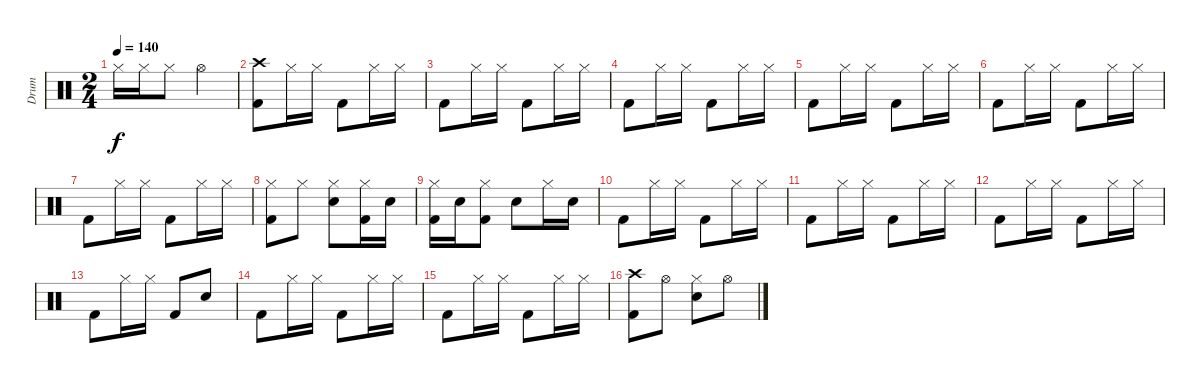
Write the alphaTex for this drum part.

\track ("Drum" "Drum") {instrument percussion}
\staff {score}
\articulation defaults
\ts (2 4)
\tempo 140
\clef neutral
\ks c "Hi-Hat (closed)".16{dy f} "Hi-Hat (closed)".16 "Hi-Hat (closed)".8 "Hi-Hat (open)".4
|
("Kick (hit) 2" "Crash high (hit)").8 "Hi-Hat (closed)".16 "Hi-Hat (closed)".16 "Kick (hit) 2".8 "Hi-Hat (closed)".16 "Hi-Hat (closed)".16 |
"Kick (hit) 2".8 "Hi-Hat (closed)".16 "Hi-Hat (closed)".16 "Kick (hit) 2".8 "Hi-Hat (closed)".16 "Hi-Hat (closed)".16 |
"Kick (hit) 2".8 "Hi-Hat (closed)".16 "Hi-Hat (closed)".16 "Kick (hit) 2".8 "Hi-Hat (closed)".16 "Hi-Hat (closed)".16 |
"Kick (hit) 2".8 "Hi-Hat (closed)".16 "Hi-Hat (closed)".16 "Kick (hit) 2".8 "Hi-Hat (closed)".16 "Hi-Hat (closed)".16 |
"Kick (hit) 2".8 "Hi-Hat (closed)".16 "Hi-Hat (closed)".16 "Kick (hit) 2".8 "Hi-Hat (closed)".16 "Hi-Hat (closed)".16 |
"Kick (hit) 2".8 "Hi-Hat (closed)".16 "Hi-Hat (closed)".16 "Kick (hit) 2".8 "Hi-Hat (closed)".16 "Hi-Hat (closed)".16 |
("Kick (hit) 2" "Hi-Hat (closed)").8 "Hi-Hat (closed)".8 ("Hi-Hat (closed)" "Electric Snare (hit)").8 ("Hi-Hat (closed)" "Kick (hit) 2").16 "Electric Snare (hit)".16 |
("Kick (hit) 2" "Hi-Hat (closed)").16 "Electric Snare (hit)".16 ("Hi-Hat (closed)" "Kick (hit) 2").8 "Electric Snare (hit)".8 "Hi-Hat (closed)".16 "Electric Snare (hit)".16 |
"Kick (hit) 2".8 "Hi-Hat (closed)".16 "Hi-Hat (closed)".16 "Kick (hit) 2".8 "Hi-Hat (closed)".16 "Hi-Hat (closed)".16 |
"Kick (hit) 2".8 "Hi-Hat (closed)".16 "Hi-Hat (closed)".16 "Kick (hit) 2".8 "Hi-Hat (closed)".16 "Hi-Hat (closed)".16 |
"Kick (hit) 2".8 "Hi-Hat (closed)".16 "Hi-Hat (closed)".16 "Kick (hit) 2".8 "Hi-Hat (closed)".16 "Hi-Hat (closed)".16 |
"Kick (hit) 2".8 "Hi-Hat (closed)".16 "Hi-Hat (closed)".16 "Kick (hit) 2".8 "Electric Snare (hit)".8 |
"Kick (hit) 2".8 "Hi-Hat (closed)".16 "Hi-Hat (closed)".16 "Kick (hit) 2".8 "Hi-Hat (closed)".16 "Hi-Hat (closed)".16 |
"Kick (hit) 2".8 "Hi-Hat (closed)".16 "Hi-Hat (closed)".16 "Kick (hit) 2".8 "Hi-Hat (closed)".16 "Hi-Hat (closed)".16 |
("Crash high (hit)" "Kick (hit) 2").8 "Hi-Hat (open)".8 ("Hi-Hat (closed)" "Electric Snare (hit)").8 "Hi-Hat (open)".8
